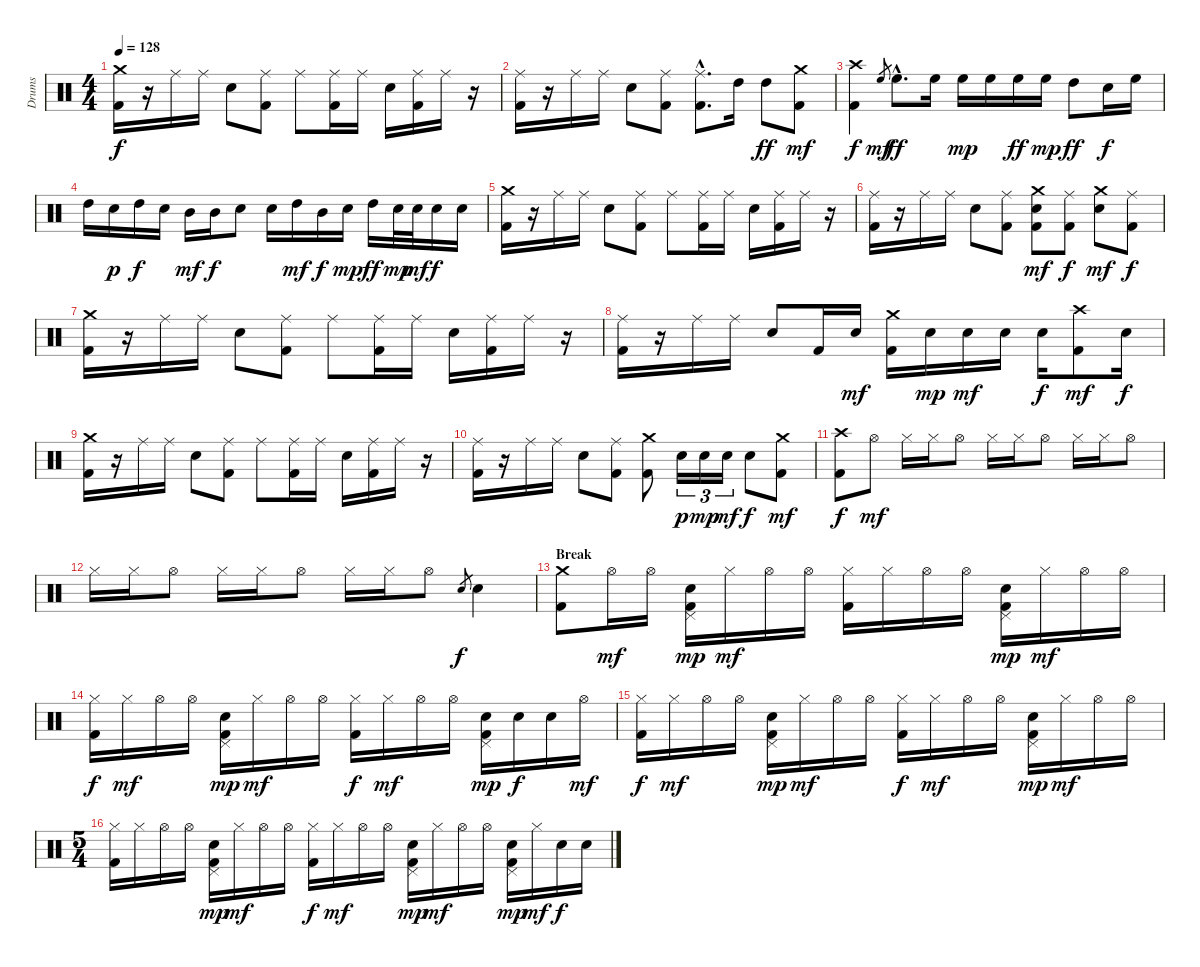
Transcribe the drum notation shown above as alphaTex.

\track ("Drums" "Drums") {instrument percussion}
\staff {score}
\articulation defaults
\ts (4 4)
\tempo 128
\clef neutral
\ks c
("Crash medium (hit)" "Kick (hit) 2").16{dy f} r.16 "Ride (middle)".16 "Ride (middle)".16 "Electric Snare (hit)".8 ("Ride (middle)" "Kick (hit) 2").8 "Ride (middle)".8 ("Ride (middle)" "Kick (hit) 2").16 "Ride (middle)".16 "Electric Snare (hit)".16 ("Ride (middle)" "Kick (hit) 2").16 "Ride (middle)".16 r.16 |
("Ride (middle)" "Kick (hit) 2").16 r.16 "Ride (middle)".16 "Ride (middle)".16 "Electric Snare (hit)".8 ("Ride (middle)" "Kick (hit) 2").8 ("Ride (middle)"{hac} "Kick (hit) 2"{hac}).8{d} "High Tom (hit)".16 "High Tom (hit)".8{dy ff} ("Crash medium (hit)" "Kick (hit) 2").8{dy mf} |
("Crash high (hit)" "Kick (hit) 2").4{dy f} "High Floor Tom (hit)".8{gr dy mf} "High Floor Tom (hit)"{hac}.8{d dy ff} "High Floor Tom (hit)".16 "High Floor Tom (hit)".16{dy mp} "High Floor Tom (hit)".16 "High Floor Tom (hit)".16{dy ff} "High Floor Tom (hit)".16{dy mp} "High Tom (hit)".8{dy ff} "Electric Snare (hit)".16{dy f} "High Floor Tom (hit)".16 |
"High Tom (hit)".16 "Electric Snare (hit)".16{dy p} "High Tom (hit)".16{dy f} "Electric Snare (hit)".16 "Mid Tom (hit)".16{dy mf} "Mid Tom (hit)".16{dy f} "Electric Snare (hit)".8 "Electric Snare (hit)".16 "High Tom (hit)".16{dy mf} "Mid Tom (hit)".16{dy f} "Electric Snare (hit)".16{dy mp} "High Tom (hit)".16{dy ff} "Electric Snare (hit)".32{dy mp} "Electric Snare (hit)".32{dy mf} "Electric Snare (hit)".16{dy f} "Electric Snare (hit)".16 |
("Crash medium (hit)" "Kick (hit) 2").16 r.16 "Ride (middle)".16 "Ride (middle)".16 "Electric Snare (hit)".8 ("Ride (middle)" "Kick (hit) 2").8 "Ride (middle)".8 ("Ride (middle)" "Kick (hit) 2").16 "Ride (middle)".16 "Electric Snare (hit)".16 ("Ride (middle)" "Kick (hit) 2").16 "Ride (middle)".16 r.16 |
("Ride (middle)" "Kick (hit) 2").16 r.16 "Ride (middle)".16 "Ride (middle)".16 "Electric Snare (hit)".8 ("Ride (middle)" "Kick (hit) 2").8 ("Crash medium (hit)" "Electric Snare (hit)" "Kick (hit) 2").8{dy mf} ("Ride (middle)" "Kick (hit) 2").8{dy f} ("Crash medium (hit)" "Electric Snare (hit)").8{dy mf} ("Ride (middle)" "Kick (hit) 2").8{dy f} |
("Crash medium (hit)" "Kick (hit) 2").16 r.16 "Ride (middle)".16 "Ride (middle)".16 "Electric Snare (hit)".8 ("Ride (middle)" "Kick (hit) 2").8 "Ride (middle)".8 ("Ride (middle)" "Kick (hit) 2").16 "Ride (middle)".16 "Electric Snare (hit)".16 ("Ride (middle)" "Kick (hit) 2").16 "Ride (middle)".16 r.16 |
("Ride (middle)" "Kick (hit) 2").16 r.16 "Ride (middle)".16 "Ride (middle)".16 "Electric Snare (hit)".8 "Kick (hit) 2".16 "Electric Snare (hit)".16{dy mf} ("Crash medium (hit)" "Kick (hit) 2").16 "Electric Snare (hit)".16{dy mp} "Electric Snare (hit)".16{dy mf} "Electric Snare (hit)".16 "Electric Snare (hit)".16{dy f} ("Crash high (hit)" "Kick (hit) 2").8{dy mf} "Electric Snare (hit)".16{dy f} |
("Crash medium (hit)" "Kick (hit) 2").16 r.16 "Ride (middle)".16 "Ride (middle)".16 "Electric Snare (hit)".8 ("Ride (middle)" "Kick (hit) 2").8 "Ride (middle)".8 ("Ride (middle)" "Kick (hit) 2").16 "Ride (middle)".16 "Electric Snare (hit)".16 ("Ride (middle)" "Kick (hit) 2").16 "Ride (middle)".16 r.16 |
("Ride (middle)" "Kick (hit) 2").16 r.16 "Ride (middle)".16 "Ride (middle)".16 "Electric Snare (hit)".8 ("Ride (middle)" "Kick (hit) 2").8 ("Crash medium (hit)" "Kick (hit) 2").8 "Electric Snare (hit)".16{tu (3 2) dy p} "Electric Snare (hit)".16{tu (3 2) dy mp} "Electric Snare (hit)".16{tu (3 2) dy mf} "Electric Snare (hit)".8{dy f} ("Crash medium (hit)" "Kick (hit) 2").8{dy mf} |
("Crash high (hit)" "Kick (hit) 2").8{dy f} "Hi-Hat (open)".8{dy mf} "Hi-Hat (closed)".16 "Hi-Hat (closed)".16 "Hi-Hat (open)".8 "Hi-Hat (closed)".16 "Hi-Hat (closed)".16 "Hi-Hat (open)".8 "Hi-Hat (closed)".16 "Hi-Hat (closed)".16 "Hi-Hat (open)".8 |
"Hi-Hat (closed)".16 "Hi-Hat (closed)".16 "Hi-Hat (open)".8 "Hi-Hat (closed)".16 "Hi-Hat (closed)".16 "Hi-Hat (open)".8 "Hi-Hat (closed)".16 "Hi-Hat (closed)".16 "Hi-Hat (open)".8 "Electric Snare (hit)".8{gr dy f} "Electric Snare (hit)".4 |
\section ("" "Break")
("Crash medium (hit)" "Kick (hit) 2").8 "Hi-Hat (open)".16{dy mf} "Hi-Hat (open)".16 ("Pedal Hi-Hat (hit)" "Electric Snare (hit)" "Kick (hit) 2").16{dy mp} "Hi-Hat (closed)".16{dy mf} "Hi-Hat (open)".16 "Hi-Hat (open)".16 ("Hi-Hat (closed)" "Kick (hit) 2").16 "Hi-Hat (closed)".16 "Hi-Hat (open)".16 "Hi-Hat (open)".16 ("Pedal Hi-Hat (hit)" "Electric Snare (hit)" "Kick (hit) 2").16{dy mp} "Hi-Hat (closed)".16{dy mf} "Hi-Hat (open)".16 "Hi-Hat (open)".16 |
("Hi-Hat (closed)" "Kick (hit) 2").16{dy f} "Hi-Hat (closed)".16{dy mf} "Hi-Hat (open)".16 "Hi-Hat (open)".16 ("Pedal Hi-Hat (hit)" "Electric Snare (hit)" "Kick (hit) 2").16{dy mp} "Hi-Hat (closed)".16{dy mf} "Hi-Hat (open)".16 "Hi-Hat (open)".16 ("Hi-Hat (closed)" "Kick (hit) 2").16{dy f} "Hi-Hat (closed)".16{dy mf} "Hi-Hat (open)".16 "Hi-Hat (open)".16 ("Pedal Hi-Hat (hit)" "Electric Snare (hit)" "Kick (hit) 2").16{dy mp} "Electric Snare (hit)".16{dy f} "Electric Snare (hit)".16 "Hi-Hat (open)".16{dy mf} |
("Hi-Hat (closed)" "Kick (hit) 2").16{dy f} "Hi-Hat (closed)".16{dy mf} "Hi-Hat (open)".16 "Hi-Hat (open)".16 ("Pedal Hi-Hat (hit)" "Electric Snare (hit)" "Kick (hit) 2").16{dy mp} "Hi-Hat (closed)".16{dy mf} "Hi-Hat (open)".16 "Hi-Hat (open)".16 ("Hi-Hat (closed)" "Kick (hit) 2").16{dy f} "Hi-Hat (closed)".16{dy mf} "Hi-Hat (open)".16 "Hi-Hat (open)".16 ("Pedal Hi-Hat (hit)" "Electric Snare (hit)" "Kick (hit) 2").16{dy mp} "Hi-Hat (closed)".16{dy mf} "Hi-Hat (open)".16 "Hi-Hat (open)".16 |
\ts (5 4)
("Hi-Hat (closed)" "Kick (hit) 2").16 "Hi-Hat (closed)".16 "Hi-Hat (open)".16 "Hi-Hat (open)".16 ("Pedal Hi-Hat (hit)" "Electric Snare (hit)" "Kick (hit) 2").16{dy mp} "Hi-Hat (closed)".16{dy mf} "Hi-Hat (open)".16 "Hi-Hat (open)".16 ("Hi-Hat (closed)" "Kick (hit) 2").16{dy f} "Hi-Hat (closed)".16{dy mf} "Hi-Hat (open)".16 "Hi-Hat (open)".16 ("Pedal Hi-Hat (hit)" "Electric Snare (hit)" "Kick (hit) 2").16{dy mp} "Hi-Hat (closed)".16{dy mf} "Hi-Hat (open)".16 "Hi-Hat (open)".16 ("Pedal Hi-Hat (hit)" "Electric Snare (hit)" "Kick (hit) 2").16{dy mp} "Hi-Hat (closed)".16{dy mf} "Electric Snare (hit)".16{dy f} "Electric Snare (hit)".16
